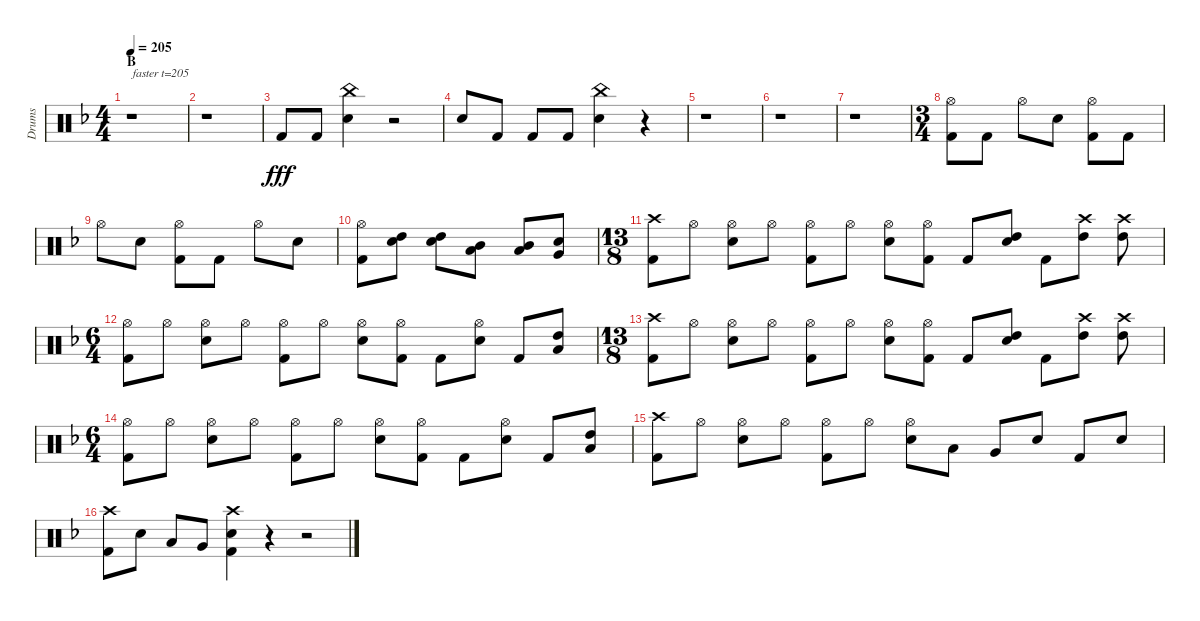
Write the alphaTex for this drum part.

\track ("Drums" "Drums") {instrument percussion}
\staff {score}
\articulation defaults
\ts (4 4)
\section ("" "B")
\tempo 205
\clef neutral
\ks f
r.1{txt "faster t=205" dy fff} |
r.1 |
"Kick (hit) 2".8 "Kick (hit) 2".8 ("China (hit)" "Snare (hit) 2").4 r.2 |
"Snare (hit) 2".8 "Kick (hit) 2".8 "Kick (hit) 2".8 "Kick (hit) 2".8 ("China (hit)" "Snare (hit) 2").4 r.4 |
r.1 |
r.1 |
r.1 |
\ts (3 4)
("Hi-Hat (open)" "Kick (hit) 2").8 "Kick (hit) 2".8 "Hi-Hat (open)".8 "Snare (hit) 2".8 ("Hi-Hat (open)" "Kick (hit) 2").8 "Kick (hit) 2".8 |
"Hi-Hat (open)".8 "Snare (hit) 2".8 ("Hi-Hat (open)" "Kick (hit) 2").8 "Kick (hit) 2".8 "Hi-Hat (open)".8 "Snare (hit) 2".8 |
("Hi-Hat (open)" "Kick (hit) 2").8 ("High Tom (hit)" "Snare (hit) 2").8 ("High Tom (hit)" "Snare (hit) 2").8 ("Mid Tom (hit)" "Low Tom (hit)").8 ("Mid Tom (hit)" "Low Tom (hit)").8 ("Very Low Tom (hit)" "Snare (hit) 2").8 |
\ts (13 8)
("Crash high (hit)" "Kick (hit) 2").8 "Hi-Hat (open)".8 ("Hi-Hat (open)" "Snare (hit) 2").8 "Hi-Hat (open)".8 ("Hi-Hat (open)" "Kick (hit) 2").8 "Hi-Hat (open)".8 ("Hi-Hat (open)" "Snare (hit) 2").8 ("Hi-Hat (open)" "Kick (hit) 2").8 "Kick (hit) 2".8 ("High Tom (hit)" "Snare (hit) 2").8 "Kick (hit) 2".8 ("Crash high (hit)" "High Tom (hit)").8 ("Crash high (hit)" "High Tom (hit)").8 |
\ts (6 4)
("Hi-Hat (open)" "Kick (hit) 2").8 "Hi-Hat (open)".8 ("Hi-Hat (open)" "Snare (hit) 2").8 "Hi-Hat (open)".8 ("Hi-Hat (open)" "Kick (hit) 2").8 "Hi-Hat (open)".8 ("Hi-Hat (open)" "Snare (hit) 2").8 ("Hi-Hat (open)" "Kick (hit) 2").8 "Kick (hit) 2".8 ("Hi-Hat (open)" "Snare (hit) 2").8 "Kick (hit) 2".8 ("High Tom (hit)" "Low Tom (hit)").8 |
\ts (13 8)
("Crash high (hit)" "Kick (hit) 2").8 "Hi-Hat (open)".8 ("Hi-Hat (open)" "Snare (hit) 2").8 "Hi-Hat (open)".8 ("Hi-Hat (open)" "Kick (hit) 2").8 "Hi-Hat (open)".8 ("Hi-Hat (open)" "Snare (hit) 2").8 ("Hi-Hat (open)" "Kick (hit) 2").8 "Kick (hit) 2".8 ("High Tom (hit)" "Snare (hit) 2").8 "Kick (hit) 2".8 ("Crash high (hit)" "High Tom (hit)").8 ("Crash high (hit)" "High Tom (hit)").8 |
\ts (6 4)
("Hi-Hat (open)" "Kick (hit) 2").8 "Hi-Hat (open)".8 ("Hi-Hat (open)" "Snare (hit) 2").8 "Hi-Hat (open)".8 ("Hi-Hat (open)" "Kick (hit) 2").8 "Hi-Hat (open)".8 ("Hi-Hat (open)" "Snare (hit) 2").8 ("Hi-Hat (open)" "Kick (hit) 2").8 "Kick (hit) 2".8 ("Hi-Hat (open)" "Snare (hit) 2").8 "Kick (hit) 2".8 ("High Tom (hit)" "Low Tom (hit)").8 |
("Crash high (hit)" "Kick (hit) 2").8 "Hi-Hat (open)".8 ("Hi-Hat (open)" "Snare (hit) 2").8 "Hi-Hat (open)".8 ("Hi-Hat (open)" "Kick (hit) 2").8 "Hi-Hat (open)".8 ("Hi-Hat (open)" "Snare (hit) 2").8 "Low Tom (hit)".8 "Very Low Tom (hit)".8 "Snare (hit) 2".8 "Kick (hit) 2".8 "Snare (hit) 2".8 |
("Crash high (hit)" "Kick (hit) 2").8 "Snare (hit) 2".8 "Low Tom (hit)".8 "Very Low Tom (hit)".8 ("Crash high (hit)" "Snare (hit) 2" "Kick (hit) 2").4 r.4 r.2
